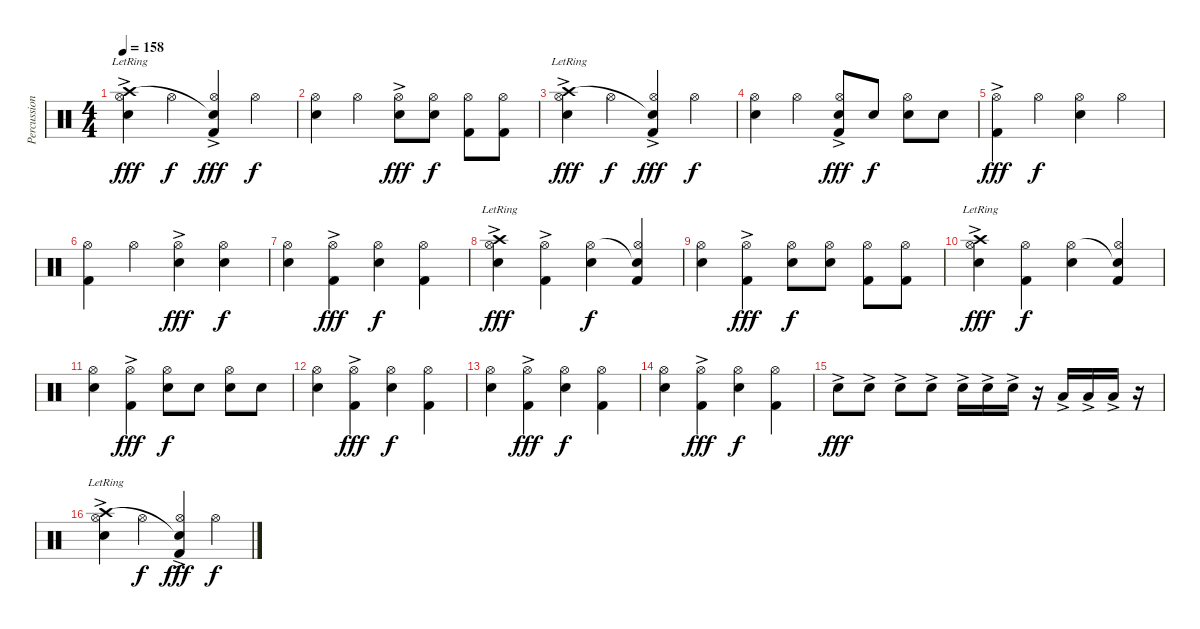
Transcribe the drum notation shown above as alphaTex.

\track ("Percussion" "Percussion") {instrument percussion}
\staff {score}
\articulation defaults
\ts (4 4)
\tempo 158
\clef neutral
\ks c
("Snare (hit) 2" "Crash high (hit)"{ac lr} "Hi-Hat (open)").4{dy fff} "Hi-Hat (open)".4{dy f} ("Kick (hit) 2"{ac} "Snare (hit)"{t} "Hi-Hat (open)").4{dy fff} "Hi-Hat (open)".4{dy f} |
("Snare (hit) 2" "Hi-Hat (open)").4 "Hi-Hat (open)".4 ("Snare (hit) 2"{ac} "Hi-Hat (open)").8{dy fff} ("Snare (hit) 2" "Hi-Hat (open)").8{dy f} ("Kick (hit) 2" "Hi-Hat (open)").8 ("Kick (hit) 2" "Hi-Hat (open)").8 |
("Snare (hit) 2"{ac} "Crash high (hit)"{ac lr} "Hi-Hat (open)").4{dy fff} "Hi-Hat (open)".4{dy f} ("Kick (hit) 2"{ac} "Snare (hit)"{t} "Hi-Hat (open)").4{dy fff} "Hi-Hat (open)".4{dy f} |
("Snare (hit) 2" "Hi-Hat (open)").4 "Hi-Hat (open)".4 ("Snare (hit) 2"{ac} "Kick (hit) 2" "Hi-Hat (open)").8{dy fff} "Snare (hit) 2".8{dy f} ("Snare (hit) 2" "Hi-Hat (open)").8 "Snare (hit) 2".8 |
("Kick (hit) 2"{ac} "Hi-Hat (open)").4{dy fff} "Hi-Hat (open)".4{dy f} ("Snare (hit) 2" "Hi-Hat (open)").4 "Hi-Hat (open)".4 |
("Kick (hit) 2" "Hi-Hat (open)").4 "Hi-Hat (open)".4 ("Snare (hit) 2"{ac} "Hi-Hat (open)").4{dy fff} ("Snare (hit) 2" "Hi-Hat (open)").4{dy f} |
("Snare (hit) 2" "Hi-Hat (open)").4 ("Kick (hit) 2"{ac} "Hi-Hat (open)").4{dy fff} ("Snare (hit) 2" "Hi-Hat (open)").4{dy f} ("Kick (hit) 2" "Hi-Hat (open)").4 |
("Snare (hit) 2" "Crash high (hit)"{ac lr} "Hi-Hat (open)").4{dy fff} ("Kick (hit) 2"{ac} "Hi-Hat (open)").4 ("Snare (hit) 2" "Hi-Hat (open)").4{dy f} ("Kick (hit) 2" "Snare (hit)"{t} "Hi-Hat (open)").4 |
("Snare (hit) 2" "Hi-Hat (open)").4 ("Kick (hit) 2"{ac} "Hi-Hat (open)").4{dy fff} ("Snare (hit) 2" "Hi-Hat (open)").8{dy f} ("Snare (hit) 2" "Hi-Hat (open)").8 ("Kick (hit) 2" "Hi-Hat (open)").8 ("Kick (hit) 2" "Hi-Hat (open)").8 |
("Snare (hit) 2"{ac} "Crash high (hit)"{ac lr} "Hi-Hat (open)").4{dy fff} ("Kick (hit) 2" "Hi-Hat (open)").4{dy f} ("Snare (hit) 2" "Hi-Hat (open)").4 ("Kick (hit) 2" "Snare (hit)"{t} "Hi-Hat (open)").4 |
("Snare (hit) 2" "Hi-Hat (open)").4 ("Kick (hit) 2"{ac} "Hi-Hat (open)").4{dy fff} ("Snare (hit) 2" "Hi-Hat (open)").8{dy f} "Snare (hit) 2".8 ("Snare (hit) 2" "Hi-Hat (open)").8 "Snare (hit) 2".8 |
("Snare (hit) 2" "Hi-Hat (open)").4 ("Kick (hit) 2"{ac} "Hi-Hat (open)").4{dy fff} ("Snare (hit) 2" "Hi-Hat (open)").4{dy f} ("Kick (hit) 2" "Hi-Hat (open)").4 |
("Snare (hit) 2" "Hi-Hat (open)").4 ("Kick (hit) 2"{ac} "Hi-Hat (open)").4{dy fff} ("Snare (hit) 2" "Hi-Hat (open)").4{dy f} ("Kick (hit) 2" "Hi-Hat (open)").4 |
("Snare (hit) 2" "Hi-Hat (open)").4 ("Kick (hit) 2"{ac} "Hi-Hat (open)").4{dy fff} ("Snare (hit) 2" "Hi-Hat (open)").4{dy f} ("Kick (hit) 2" "Hi-Hat (open)").4 |
"Snare (hit) 2"{ac}.8{dy fff} "Snare (hit) 2"{ac}.8 "Snare (hit) 2"{ac}.8 "Snare (hit) 2"{ac}.8 "Electric Snare (hit)"{ac}.16 "Electric Snare (hit)"{ac}.16 "Electric Snare (hit)"{ac}.16 r.16 "Low Floor Tom (hit)"{ac}.16 "Low Floor Tom (hit)"{ac}.16 "Low Floor Tom (hit)"{ac}.16 r.16 |
("Snare (hit) 2" "Crash high (hit)"{ac lr} "Hi-Hat (open)").4 "Hi-Hat (open)".4{dy f} ("Kick (hit) 2"{ac} "Snare (hit)"{t} "Hi-Hat (open)").4{dy fff} "Hi-Hat (open)".4{dy f}
